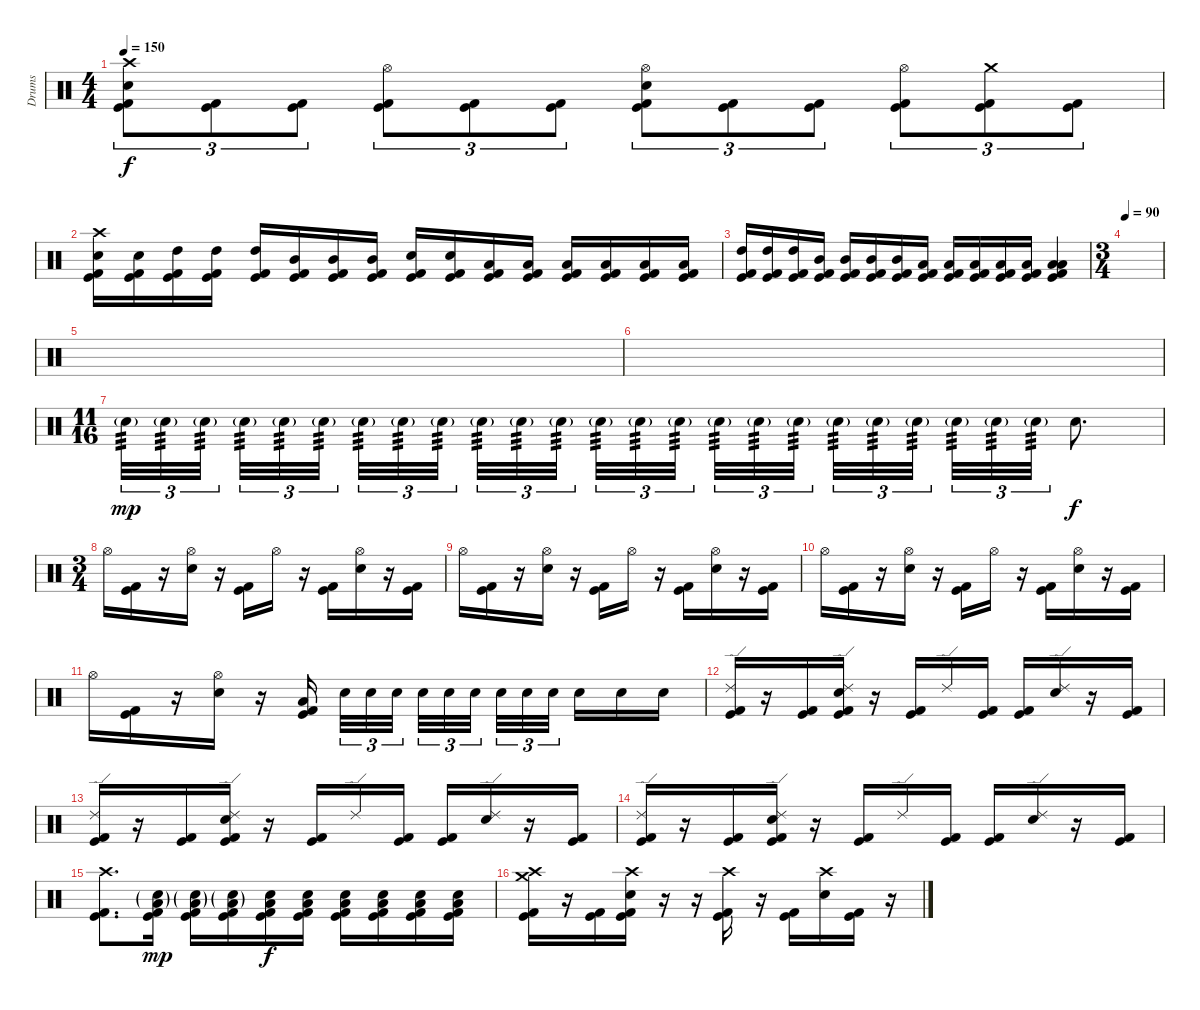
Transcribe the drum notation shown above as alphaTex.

\track ("Drums" "Drums") {instrument percussion}
\staff {score}
\articulation defaults
\ts (4 4)
\tempo 150
\clef neutral
\ks c
("Crash high (hit)" "Electric Snare (hit)" "Kick (hit)" "Kick (hit) 2").8{tu (3 2) dy f} ("Kick (hit)" "Kick (hit) 2").8{tu (3 2)} ("Kick (hit)" "Kick (hit) 2").8{tu (3 2)} ("Hi-Hat (open)" "Kick (hit)" "Kick (hit) 2").8{tu (3 2)} ("Kick (hit)" "Kick (hit) 2").8{tu (3 2)} ("Kick (hit)" "Kick (hit) 2").8{tu (3 2)} ("Hi-Hat (open)" "Electric Snare (hit)" "Kick (hit)" "Kick (hit) 2").8{tu (3 2)} ("Kick (hit)" "Kick (hit) 2").8{tu (3 2)} ("Kick (hit)" "Kick (hit) 2").8{tu (3 2)} ("Hi-Hat (open)" "Kick (hit)" "Kick (hit) 2").8{tu (3 2)} ("Crash medium (hit)" "Kick (hit)" "Kick (hit) 2").8{tu (3 2)} ("Kick (hit)" "Kick (hit) 2").8{tu (3 2)} |
("Crash high (hit)" "Electric Snare (hit)" "Kick (hit)" "Kick (hit) 2").16 ("Electric Snare (hit)" "Kick (hit)" "Kick (hit) 2").16 ("High Tom (hit)" "Kick (hit)" "Kick (hit) 2").16 ("High Tom (hit)" "Kick (hit)" "Kick (hit) 2").16 ("High Tom (hit)" "Kick (hit)" "Kick (hit) 2").16 ("Mid Tom (hit)" "Kick (hit)" "Kick (hit) 2").16 ("Mid Tom (hit)" "Kick (hit)" "Kick (hit) 2").16 ("Mid Tom (hit)" "Kick (hit)" "Kick (hit) 2").16 ("Electric Snare (hit)" "Kick (hit)" "Kick (hit) 2").16 ("Electric Snare (hit)" "Kick (hit)" "Kick (hit) 2").16 ("Low Tom (hit)" "Kick (hit)" "Kick (hit) 2").16 ("Low Tom (hit)" "Kick (hit)" "Kick (hit) 2").16 ("Low Tom (hit)" "Kick (hit)" "Kick (hit) 2").16 ("Low Floor Tom (hit)" "Kick (hit)" "Kick (hit) 2").16 ("Low Floor Tom (hit)" "Kick (hit)" "Kick (hit) 2").16 ("Low Floor Tom (hit)" "Kick (hit)" "Kick (hit) 2").16 |
("High Tom (hit)" "Kick (hit)" "Kick (hit) 2").16 ("High Tom (hit)" "Kick (hit)" "Kick (hit) 2").16 ("High Tom (hit)" "Kick (hit)" "Kick (hit) 2").16 ("Mid Tom (hit)" "Kick (hit)" "Kick (hit) 2").16 ("Mid Tom (hit)" "Kick (hit)" "Kick (hit) 2").16 ("Mid Tom (hit)" "Kick (hit)" "Kick (hit) 2").16 ("Mid Tom (hit)" "Kick (hit)" "Kick (hit) 2").16 ("Low Tom (hit)" "Kick (hit)" "Kick (hit) 2").16 ("Low Tom (hit)" "Kick (hit)" "Kick (hit) 2").16 ("Low Tom (hit)" "Kick (hit)" "Kick (hit) 2").16 ("Low Floor Tom (hit)" "Kick (hit)" "Kick (hit) 2").16 ("Low Floor Tom (hit)" "Kick (hit)" "Kick (hit) 2").16 ("Low Tom (hit)" "Low Floor Tom (hit)" "Kick (hit)" "Kick (hit) 2").4 |
\ts (3 4)
\tempo 90
|
|
|
\ts (11 16)
"Electric Snare (hit)"{g}.32{tu (3 2) tp 3 dy mp} "Electric Snare (hit)"{g}.32{tu (3 2) tp 3} "Electric Snare (hit)"{g}.32{tu (3 2) tp 3} "Electric Snare (hit)"{g}.32{tu (3 2) tp 3} "Electric Snare (hit)"{g}.32{tu (3 2) tp 3} "Electric Snare (hit)"{g}.32{tu (3 2) tp 3} "Electric Snare (hit)"{g}.32{tu (3 2) tp 3} "Electric Snare (hit)"{g}.32{tu (3 2) tp 3} "Electric Snare (hit)"{g}.32{tu (3 2) tp 3} "Electric Snare (hit)"{g}.32{tu (3 2) tp 3} "Electric Snare (hit)"{g}.32{tu (3 2) tp 3} "Electric Snare (hit)"{g}.32{tu (3 2) tp 3} "Electric Snare (hit)"{g}.32{tu (3 2) tp 3} "Electric Snare (hit)"{g}.32{tu (3 2) tp 3} "Electric Snare (hit)"{g}.32{tu (3 2) tp 3} "Electric Snare (hit)"{g}.32{tu (3 2) tp 3} "Electric Snare (hit)"{g}.32{tu (3 2) tp 3} "Electric Snare (hit)"{g}.32{tu (3 2) tp 3} "Electric Snare (hit)"{g}.32{tu (3 2) tp 3} "Electric Snare (hit)"{g}.32{tu (3 2) tp 3} "Electric Snare (hit)"{g}.32{tu (3 2) tp 3} "Electric Snare (hit)"{g}.32{tu (3 2) tp 3} "Electric Snare (hit)"{g}.32{tu (3 2) tp 3} "Electric Snare (hit)"{g}.32{tu (3 2) tp 3} "Electric Snare (hit)".8{d dy f} |
\ts (3 4)
"Hi-Hat (open)".16 ("Kick (hit)" "Kick (hit) 2").16 r.16 ("Hi-Hat (open)" "Electric Snare (hit)").16 r.16 ("Kick (hit)" "Kick (hit) 2").16 "Hi-Hat (open)".16 r.16 ("Kick (hit)" "Kick (hit) 2").16 ("Hi-Hat (open)" "Electric Snare (hit)").16 r.16 ("Kick (hit)" "Kick (hit) 2").16 |
"Hi-Hat (open)".16 ("Kick (hit)" "Kick (hit) 2").16 r.16 ("Hi-Hat (open)" "Electric Snare (hit)").16 r.16 ("Kick (hit)" "Kick (hit) 2").16 "Hi-Hat (open)".16 r.16 ("Kick (hit)" "Kick (hit) 2").16 ("Hi-Hat (open)" "Electric Snare (hit)").16 r.16 ("Kick (hit)" "Kick (hit) 2").16 |
"Hi-Hat (open)".16 ("Kick (hit)" "Kick (hit) 2").16 r.16 ("Hi-Hat (open)" "Electric Snare (hit)").16 r.16 ("Kick (hit)" "Kick (hit) 2").16 "Hi-Hat (open)".16 r.16 ("Kick (hit)" "Kick (hit) 2").16 ("Hi-Hat (open)" "Electric Snare (hit)").16 r.16 ("Kick (hit)" "Kick (hit) 2").16 |
"Hi-Hat (open)".16 ("Kick (hit)" "Kick (hit) 2").16 r.16 ("Hi-Hat (open)" "Electric Snare (hit)").16 r.16 ("Low Tom (hit)" "Kick (hit)" "Kick (hit) 2").16{beam splitsecondary} "Electric Snare (hit)".32{tu (3 2)} "Electric Snare (hit)".32{tu (3 2)} "Electric Snare (hit)".32{tu (3 2) beam splitsecondary} "Electric Snare (hit)".32{tu (3 2)} "Electric Snare (hit)".32{tu (3 2)} "Electric Snare (hit)".32{tu (3 2)} "Electric Snare (hit)".32{tu (3 2)} "Electric Snare (hit)".32{tu (3 2)} "Electric Snare (hit)".32{tu (3 2) beam splitsecondary} "Electric Snare (hit)".16 "Electric Snare (hit)".16 "Electric Snare (hit)".16 |
("Ride (edge) 2" "Kick (hit)" "Kick (hit) 2").16 r.16 ("Kick (hit)" "Kick (hit) 2").16 ("Ride (edge) 2" "Electric Snare (hit)" "Kick (hit)" "Kick (hit) 2").16 r.16 ("Kick (hit)" "Kick (hit) 2").16 "Ride (edge) 2".16 ("Kick (hit)" "Kick (hit) 2").16 ("Kick (hit)" "Kick (hit) 2").16 ("Ride (edge) 2" "Electric Snare (hit)").16 r.16 ("Kick (hit)" "Kick (hit) 2").16 |
("Ride (edge) 2" "Kick (hit)" "Kick (hit) 2").16 r.16 ("Kick (hit)" "Kick (hit) 2").16 ("Ride (edge) 2" "Electric Snare (hit)" "Kick (hit)" "Kick (hit) 2").16 r.16 ("Kick (hit)" "Kick (hit) 2").16 "Ride (edge) 2".16 ("Kick (hit)" "Kick (hit) 2").16 ("Kick (hit)" "Kick (hit) 2").16 ("Ride (edge) 2" "Electric Snare (hit)").16 r.16 ("Kick (hit)" "Kick (hit) 2").16 |
("Ride (edge) 2" "Kick (hit)" "Kick (hit) 2").16 r.16 ("Kick (hit)" "Kick (hit) 2").16 ("Ride (edge) 2" "Electric Snare (hit)" "Kick (hit)" "Kick (hit) 2").16 r.16 ("Kick (hit)" "Kick (hit) 2").16 "Ride (edge) 2".16 ("Kick (hit)" "Kick (hit) 2").16 ("Kick (hit)" "Kick (hit) 2").16 ("Ride (edge) 2" "Electric Snare (hit)").16 r.16 ("Kick (hit)" "Kick (hit) 2").16 |
("Crash high (hit)" "Kick (hit)" "Kick (hit) 2").8{d} ("Low Tom (hit)"{g} "Electric Snare (hit)"{g} "Kick (hit)" "Kick (hit) 2").16{dy mp} ("Low Tom (hit)"{g} "Electric Snare (hit)"{g} "Kick (hit)" "Kick (hit) 2").16 ("Low Tom (hit)"{g} "Electric Snare (hit)"{g} "Kick (hit)" "Kick (hit) 2").16 ("Low Tom (hit)" "Electric Snare (hit)" "Kick (hit)" "Kick (hit) 2").16{dy f} ("Low Tom (hit)" "Electric Snare (hit)" "Kick (hit)" "Kick (hit) 2").16 ("Low Tom (hit)" "Electric Snare (hit)" "Kick (hit)" "Kick (hit) 2").16 ("Low Tom (hit)" "Electric Snare (hit)" "Kick (hit)" "Kick (hit) 2").16 ("Low Tom (hit)" "Electric Snare (hit)" "Kick (hit)" "Kick (hit) 2").16 ("Low Tom (hit)" "Electric Snare (hit)" "Kick (hit)" "Kick (hit) 2").16 |
("Crash medium (hit)" "Crash high (hit)" "Kick (hit)" "Kick (hit) 2").16 r.16 ("Kick (hit)" "Kick (hit) 2").16 ("Crash high (hit)" "Electric Snare (hit)" "Kick (hit)" "Kick (hit) 2").16 r.16 r.16 ("Crash high (hit)" "Kick (hit)" "Kick (hit) 2").16 r.16 ("Kick (hit)" "Kick (hit) 2").16 ("Crash high (hit)" "Electric Snare (hit)").16 ("Kick (hit)" "Kick (hit) 2").16 r.16
